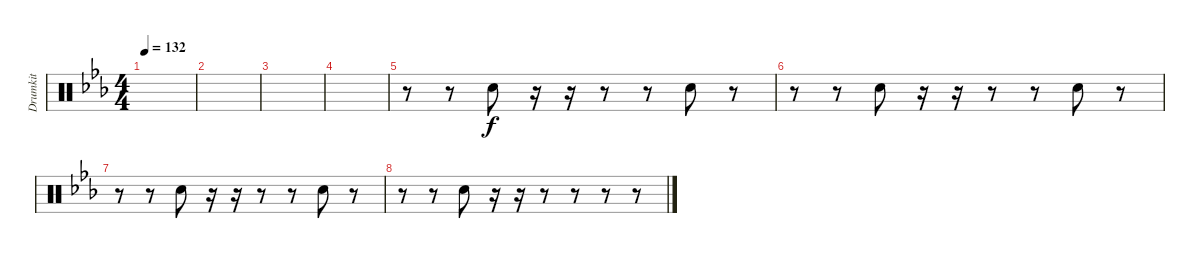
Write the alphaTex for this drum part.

\track ("Drumkit" "Drumkit") {instrument percussion}
\staff {score}
\articulation defaults
\ts (4 4)
\tempo 132
\clef neutral
\ks eb
|
|
|
|
r.8 r.8 "Snare (hit) 2".8 r.16 r.16 r.8 r.8 "Snare (hit) 2".8 r.8 |
r.8 r.8 "Snare (hit) 2".8 r.16 r.16 r.8 r.8 "Snare (hit) 2".8 r.8 |
r.8 r.8 "Snare (hit) 2".8 r.16 r.16 r.8 r.8 "Snare (hit) 2".8 r.8 |
r.8 r.8 "Snare (hit) 2".8 r.16 r.16 r.8 r.8 r.8 r.8
